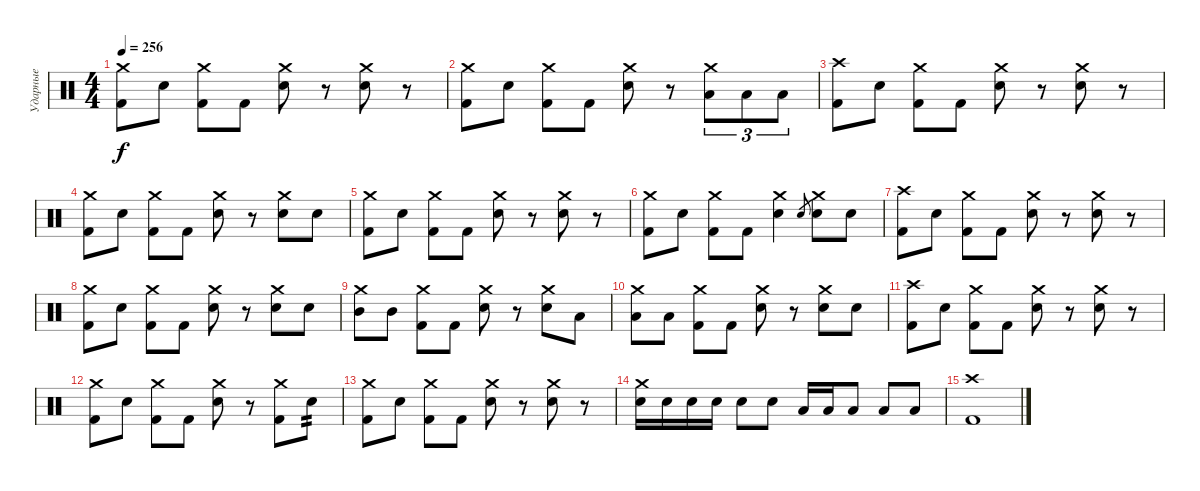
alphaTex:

\track ("Ударные" "Ударные") {instrument percussion}
\staff {score}
\articulation defaults
\ts (4 4)
\tempo 256
\clef neutral
\ks c
("Crash medium (hit)" "Kick (hit) 2").8{dy f} "Electric Snare (hit)".8 ("Crash medium (hit)" "Kick (hit) 2").8 "Kick (hit) 2".8 ("Crash medium (hit)" "Electric Snare (hit)").8 r.8 ("Crash medium (hit)" "Electric Snare (hit)").8 r.8 |
("Crash medium (hit)" "Kick (hit) 2").8 "Electric Snare (hit)".8 ("Crash medium (hit)" "Kick (hit) 2").8 "Kick (hit) 2".8 ("Crash medium (hit)" "Electric Snare (hit)").8 r.8 ("Crash medium (hit)" "Low Tom (hit)").8{tu (3 2)} "Low Tom (hit)".8{tu (3 2)} "Low Tom (hit)".8{tu (3 2)} |
("Crash high (hit)" "Kick (hit) 2").8 "Electric Snare (hit)".8 ("Crash medium (hit)" "Kick (hit) 2").8 "Kick (hit) 2".8 ("Crash medium (hit)" "Electric Snare (hit)").8 r.8 ("Crash medium (hit)" "Electric Snare (hit)").8 r.8 |
("Crash medium (hit)" "Kick (hit) 2").8 "Electric Snare (hit)".8 ("Crash medium (hit)" "Kick (hit) 2").8 "Kick (hit) 2".8 ("Crash medium (hit)" "Electric Snare (hit)").8 r.8 ("Crash medium (hit)" "Electric Snare (hit)").8 "Electric Snare (hit)".8 |
("Crash medium (hit)" "Kick (hit) 2").8 "Electric Snare (hit)".8 ("Crash medium (hit)" "Kick (hit) 2").8 "Kick (hit) 2".8 ("Crash medium (hit)" "Electric Snare (hit)").8 r.8 ("Crash medium (hit)" "Electric Snare (hit)").8 r.8 |
("Crash medium (hit)" "Kick (hit) 2").8 "Electric Snare (hit)".8 ("Crash medium (hit)" "Kick (hit) 2").8 "Kick (hit) 2".8 ("Crash medium (hit)" "Electric Snare (hit)").4 "Electric Snare (hit)".8{gr} ("Crash medium (hit)" "Electric Snare (hit)").8 "Electric Snare (hit)".8 |
("Crash high (hit)" "Kick (hit) 2").8 "Electric Snare (hit)".8 ("Crash medium (hit)" "Kick (hit) 2").8 "Kick (hit) 2".8 ("Crash medium (hit)" "Electric Snare (hit)").8 r.8 ("Crash medium (hit)" "Electric Snare (hit)").8 r.8 |
("Crash medium (hit)" "Kick (hit) 2").8 "Electric Snare (hit)".8 ("Crash medium (hit)" "Kick (hit) 2").8 "Kick (hit) 2".8 ("Crash medium (hit)" "Electric Snare (hit)").8 r.8 ("Crash medium (hit)" "Electric Snare (hit)").8 "Electric Snare (hit)".8 |
("Crash medium (hit)" "Mid Tom (hit)").8 "Mid Tom (hit)".8 ("Crash medium (hit)" "Kick (hit) 2").8 "Kick (hit) 2".8 ("Crash medium (hit)" "Electric Snare (hit)").8 r.8 ("Crash medium (hit)" "Electric Snare (hit)").8 "Low Tom (hit)".8 |
("Crash medium (hit)" "Low Tom (hit)").8 "Low Tom (hit)".8 ("Crash medium (hit)" "Kick (hit) 2").8 "Kick (hit) 2".8 ("Crash medium (hit)" "Electric Snare (hit)").8 r.8 ("Crash medium (hit)" "Electric Snare (hit)").8 "Electric Snare (hit)".8 |
("Crash high (hit)" "Kick (hit) 2").8 "Electric Snare (hit)".8 ("Crash medium (hit)" "Kick (hit) 2").8 "Kick (hit) 2".8 ("Crash medium (hit)" "Electric Snare (hit)").8 r.8 ("Crash medium (hit)" "Electric Snare (hit)").8 r.8 |
("Crash medium (hit)" "Kick (hit) 2").8 "Electric Snare (hit)".8 ("Crash medium (hit)" "Kick (hit) 2").8 "Kick (hit) 2".8 ("Crash medium (hit)" "Electric Snare (hit)").8 r.8 ("Crash medium (hit)" "Kick (hit) 2").8 "Electric Snare (hit)".8{tp 2} |
("Crash medium (hit)" "Kick (hit) 2").8 "Electric Snare (hit)".8 ("Crash medium (hit)" "Kick (hit) 2").8 "Kick (hit) 2".8 ("Crash medium (hit)" "Electric Snare (hit)").8 r.8 ("Crash medium (hit)" "Electric Snare (hit)").8 r.8 |
("Crash medium (hit)" "Electric Snare (hit)").16 "Electric Snare (hit)".16 "Electric Snare (hit)".16 "Electric Snare (hit)".16 "Electric Snare (hit)".8 "Electric Snare (hit)".8 "Low Tom (hit)".16 "Low Tom (hit)".16 "Low Tom (hit)".8 "Low Tom (hit)".8 "Low Tom (hit)".8 |
("Crash high (hit)" "Kick (hit) 2").1
